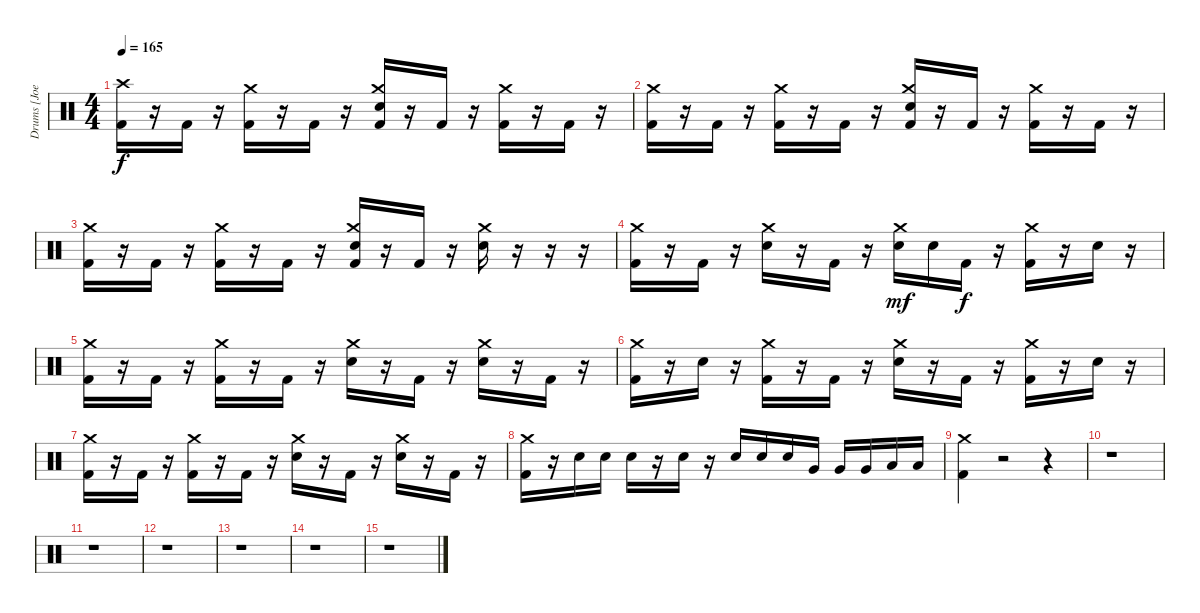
\track ("Drums [Joel Paolucci]" "Drums [Joe") {instrument percussion}
\staff {score}
\articulation defaults
\ts (4 4)
\tempo 165
\clef neutral
\ks c
("Crash high (hit)" "Kick (hit) 2").16{dy f} r.16 "Kick (hit) 2".16 r.16 ("Crash medium (hit)" "Kick (hit) 2").16 r.16 "Kick (hit) 2".16 r.16 ("Crash medium (hit)" "Electric Snare (hit)" "Kick (hit) 2").16 r.16 "Kick (hit) 2".16 r.16 ("Crash medium (hit)" "Kick (hit) 2").16 r.16 "Kick (hit) 2".16 r.16 |
("Crash medium (hit)" "Kick (hit) 2").16 r.16 "Kick (hit) 2".16 r.16 ("Crash medium (hit)" "Kick (hit) 2").16 r.16 "Kick (hit) 2".16 r.16 ("Crash medium (hit)" "Electric Snare (hit)" "Kick (hit) 2").16 r.16 "Kick (hit) 2".16 r.16 ("Crash medium (hit)" "Kick (hit) 2").16 r.16 "Kick (hit) 2".16 r.16 |
("Crash medium (hit)" "Kick (hit) 2").16 r.16 "Kick (hit) 2".16 r.16 ("Crash medium (hit)" "Kick (hit) 2").16 r.16 "Kick (hit) 2".16 r.16 ("Crash medium (hit)" "Electric Snare (hit)" "Kick (hit) 2").16 r.16 "Kick (hit) 2".16 r.16 ("Crash medium (hit)" "Electric Snare (hit)").16 r.16 r.16 r.16 |
("Crash medium (hit)" "Kick (hit) 2").16 r.16 "Kick (hit) 2".16 r.16 ("Crash medium (hit)" "Electric Snare (hit)").16 r.16 "Kick (hit) 2".16 r.16 ("Crash medium (hit)" "Electric Snare (hit)").16{dy mf} "Electric Snare (hit)".16 "Kick (hit) 2".16{dy f} r.16 ("Crash medium (hit)" "Kick (hit) 2").16 r.16 "Electric Snare (hit)".16 r.16 |
("Crash medium (hit)" "Kick (hit) 2").16 r.16 "Kick (hit) 2".16 r.16 ("Crash medium (hit)" "Kick (hit) 2").16 r.16 "Kick (hit) 2".16 r.16 ("Crash medium (hit)" "Electric Snare (hit)").16 r.16 "Kick (hit) 2".16 r.16 ("Crash medium (hit)" "Electric Snare (hit)").16 r.16 "Kick (hit) 2".16 r.16 |
("Crash medium (hit)" "Kick (hit) 2").16 r.16 "Electric Snare (hit)".16 r.16 ("Crash medium (hit)" "Kick (hit) 2").16 r.16 "Kick (hit) 2".16 r.16 ("Crash medium (hit)" "Electric Snare (hit)").16 r.16 "Kick (hit) 2".16 r.16 ("Crash medium (hit)" "Kick (hit) 2").16 r.16 "Electric Snare (hit)".16 r.16 |
("Crash medium (hit)" "Kick (hit) 2").16 r.16 "Kick (hit) 2".16 r.16 ("Crash medium (hit)" "Kick (hit) 2").16 r.16 "Kick (hit) 2".16 r.16 ("Crash medium (hit)" "Electric Snare (hit)").16 r.16 "Kick (hit) 2".16 r.16 ("Crash medium (hit)" "Electric Snare (hit)").16 r.16 "Kick (hit) 2".16 r.16 |
("Crash medium (hit)" "Kick (hit) 2").16 r.16 "Electric Snare (hit)".16 "Electric Snare (hit)".16 "Electric Snare (hit)".16 r.16 "Electric Snare (hit)".16 r.16 "Electric Snare (hit)".16 "Electric Snare (hit)".16 "Electric Snare (hit)".16 "Very Low Tom (hit)".16 "Very Low Tom (hit)".16 "Very Low Tom (hit)".16 "Low Floor Tom (hit)".16 "Low Floor Tom (hit)".16 |
("Crash medium (hit)" "Kick (hit) 2").4 r.2 r.4 |
r.1 |
r.1 |
r.1 |
r.1 |
r.1 |
r.1
